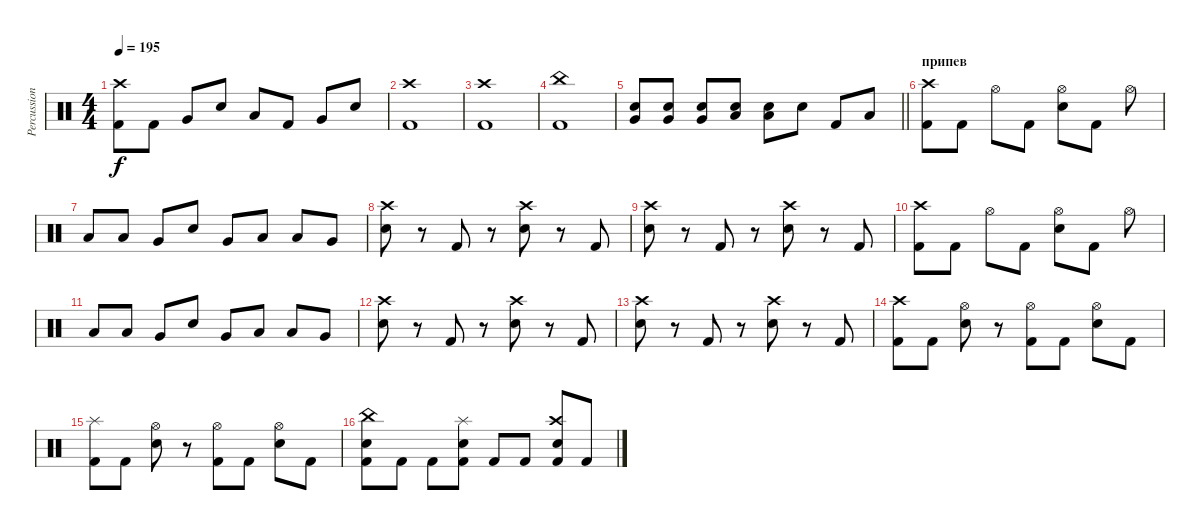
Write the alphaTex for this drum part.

\track ("Percussions" "Percussion") {instrument percussion}
\staff {score}
\articulation defaults
\ts (4 4)
\tempo 195
\clef neutral
\ks c
("Kick (hit) 2" "Crash high (hit)").8{dy f} "Kick (hit) 2".8 "Very Low Tom (hit)".8 "Electric Snare (hit)".8 "Low Floor Tom (hit)".8 "Kick (hit) 2".8 "Very Low Tom (hit)".8 "Electric Snare (hit)".8 |
("Crash high (hit)" "Kick (hit) 2").1 |
("Crash high (hit)" "Kick (hit) 2").1 |
("China (hit)" "Kick (hit) 2").1 |
\barLineRight lightlight
("Very Low Tom (hit)" "Electric Snare (hit)").8 ("Very Low Tom (hit)" "Electric Snare (hit)").8 ("Very Low Tom (hit)" "Electric Snare (hit)").8 ("Electric Snare (hit)" "Low Floor Tom (hit)").8 ("Electric Snare (hit)" "Low Floor Tom (hit)").8 "Electric Snare (hit)".8 "Kick (hit) 2".8 "Low Floor Tom (hit)".8 |
\section ("" "припев")
("Crash high (hit)" "Kick (hit) 2").8 "Kick (hit) 2".8 "Hi-Hat (open)".8 "Kick (hit) 2".8 ("Hi-Hat (open)" "Electric Snare (hit)").8 "Kick (hit) 2".8 "Hi-Hat (open)".8 |
"Low Floor Tom (hit)".8 "Low Floor Tom (hit)".8 "Very Low Tom (hit)".8 "Electric Snare (hit)".8 "Very Low Tom (hit)".8 "Low Floor Tom (hit)".8 "Low Floor Tom (hit)".8 "Very Low Tom (hit)".8 |
("Crash high (hit)" "Electric Snare (hit)").8 r.8 "Kick (hit) 2".8 r.8 ("Crash high (hit)" "Electric Snare (hit)").8 r.8 "Kick (hit) 2".8 |
("Crash high (hit)" "Electric Snare (hit)").8 r.8 "Kick (hit) 2".8 r.8 ("Crash high (hit)" "Electric Snare (hit)").8 r.8 "Kick (hit) 2".8 |
("Crash high (hit)" "Kick (hit) 2").8 "Kick (hit) 2".8 "Hi-Hat (open)".8 "Kick (hit) 2".8 ("Hi-Hat (open)" "Electric Snare (hit)").8 "Kick (hit) 2".8 "Hi-Hat (open)".8 |
"Low Floor Tom (hit)".8 "Low Floor Tom (hit)".8 "Very Low Tom (hit)".8 "Electric Snare (hit)".8 "Very Low Tom (hit)".8 "Low Floor Tom (hit)".8 "Low Floor Tom (hit)".8 "Very Low Tom (hit)".8 |
("Crash high (hit)" "Electric Snare (hit)").8 r.8 "Kick (hit) 2".8 r.8 ("Crash high (hit)" "Electric Snare (hit)").8 r.8 "Kick (hit) 2".8 |
("Crash high (hit)" "Electric Snare (hit)").8 r.8 "Kick (hit) 2".8 r.8 ("Crash high (hit)" "Electric Snare (hit)").8 r.8 "Kick (hit) 2".8 |
("Crash high (hit)" "Kick (hit) 2").8 "Kick (hit) 2".8 ("Hi-Hat (open)" "Electric Snare (hit)").8 r.8 ("Hi-Hat (open)" "Kick (hit) 2").8 "Kick (hit) 2".8 ("Electric Snare (hit)" "Hi-Hat (open)").8 "Kick (hit) 2".8 |
("Splash (hit)" "Kick (hit) 2").8 "Kick (hit) 2".8 ("Hi-Hat (open)" "Electric Snare (hit)").8 r.8 ("Hi-Hat (open)" "Kick (hit) 2").8 "Kick (hit) 2".8 ("Electric Snare (hit)" "Hi-Hat (open)").8 "Kick (hit) 2".8 |
("Kick (hit) 2" "Electric Snare (hit)" "China (hit)").8 "Kick (hit) 2".8 "Kick (hit) 2".8 ("Kick (hit) 2" "Electric Snare (hit)" "Splash (hit)").8 "Kick (hit) 2".8 "Kick (hit) 2".8 ("Kick (hit) 2" "Electric Snare (hit)" "Crash high (hit)").8 "Kick (hit) 2".8
